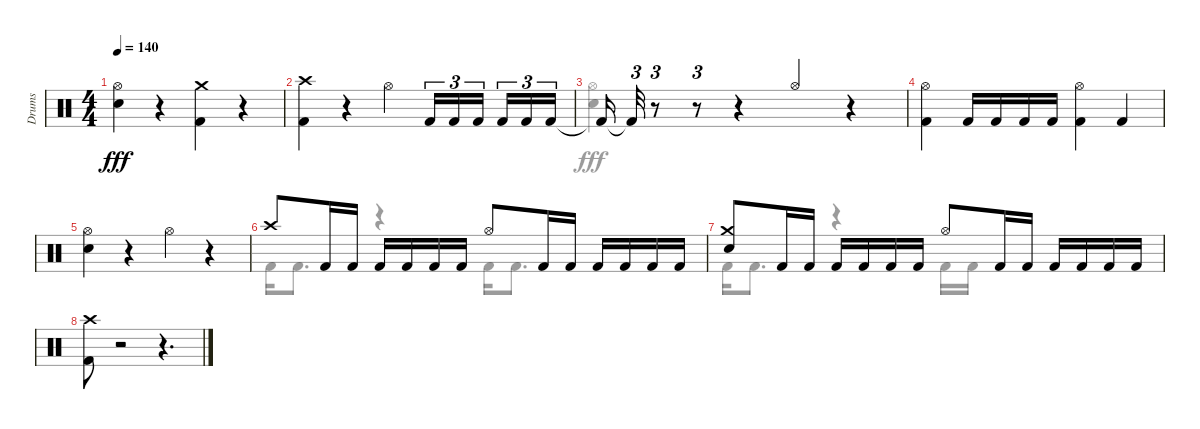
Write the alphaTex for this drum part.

\track ("Drums" "Drums") {instrument percussion}
\staff {score}
\articulation defaults
\voice
\ts (4 4)
\tempo 140
\clef neutral
\ks aminor
("Snare (hit) 2" "Hi-Hat (open)").4{dy fff} r.4 ("Kick (hit) 2" "Crash medium (hit)").4 r.4 |
("Kick (hit) 2" "Crash high (hit)").4 r.4 "Hi-Hat (open)".4 "Kick (hit) 2".16{tu (3 2)} "Kick (hit) 2".16{tu (3 2)} "Kick (hit) 2".16{tu (3 2)} "Kick (hit) 2".16{tu (3 2)} "Kick (hit) 2".16{tu (3 2)} "Kick (hit) 2".16{tu (3 2)} |
"Kick (hit) 2"{t}.16 "Kick (hit) 2"{t}.32{tu (3 2)} r.8{tu (3 2)} r.8{tu (3 2)} r.4 "Hi-Hat (open)".4 r.4 |
("Hi-Hat (open)" "Kick (hit) 2").4 "Kick (hit) 2".16 "Kick (hit) 2".16 "Kick (hit) 2".16 "Kick (hit) 2".16 ("Kick (hit) 2" "Hi-Hat (open)").4 "Kick (hit) 2".4 |
("Hi-Hat (open)" "Snare (hit) 2").4 r.4 "Hi-Hat (open)".4 r.4 |
"Crash high (hit)".8 "Kick (hit) 2".16 "Kick (hit) 2".16 "Kick (hit) 2".16 "Kick (hit) 2".16 "Kick (hit) 2".16 "Kick (hit) 2".16 "Hi-Hat (open)".8 "Kick (hit) 2".16 "Kick (hit) 2".16 "Kick (hit) 2".16 "Kick (hit) 2".16 "Kick (hit) 2".16 "Kick (hit) 2".16 |
("Crash medium (hit)" "Snare (hit) 2").8 "Kick (hit) 2".16 "Kick (hit) 2".16 "Kick (hit) 2".16 "Kick (hit) 2".16 "Kick (hit) 2".16 "Kick (hit) 2".16 "Hi-Hat (open)".8 "Kick (hit) 2".16 "Kick (hit) 2".16 "Kick (hit) 2".16 "Kick (hit) 2".16 "Kick (hit) 2".16 "Kick (hit) 2".16 |
("Kick (hit) 2" "Crash high (hit)").8 r.2 r.4{d} |
\voice
\clef neutral
\ottava regular
\simile none
\ks aminor
|
|
("Hi-Hat (open)" "Snare (hit) 2").4 |
|
|
"Kick (hit) 2".16 "Kick (hit) 2".8{d} r.4 "Kick (hit) 2".16 "Kick (hit) 2".8{d} |
"Kick (hit) 2".16 "Kick (hit) 2".8{d} r.4 "Kick (hit) 2".16 "Kick (hit) 2".16 |
|
